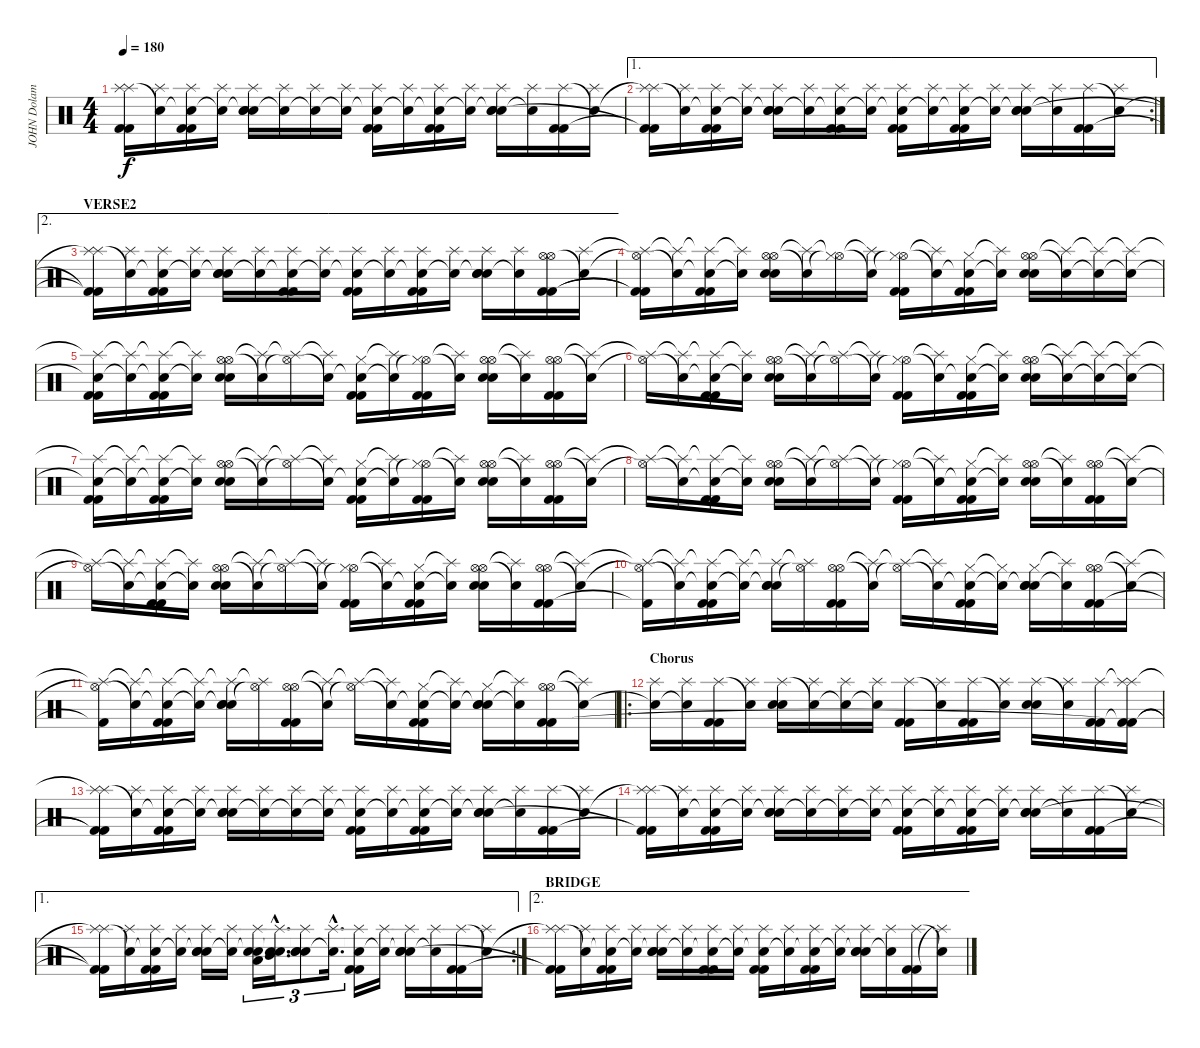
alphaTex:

\track ("JOHN Dolamyan" "JOHN Dolam") {instrument percussion}
\staff {score}
\articulation defaults
\ts (4 4)
\tempo 180
\clef neutral
\ks c
("Splash (hit)"{t} "Splash (hit)" "Kick (hit) 2"{t} "Kick (hit) 2"{t}).16{dy f} ("Snare (hit)"{t} "Splash (hit)").16 ("Snare (hit)"{t} "Splash (hit)" "Kick (hit) 2" "Kick (hit) 2").16 ("Snare (hit)"{t} "Splash (hit)").16 ("Snare (hit)"{t} "Splash (hit)" "Electric Snare (hit)" "Electric Snare (hit)").16 ("Snare (hit)"{t} "Splash (hit)").16 ("Snare (hit)"{t} "Splash (hit)").16 ("Snare (hit)"{t} "Splash (hit)").16 ("Snare (hit)"{t} "Splash (hit)" "Kick (hit) 2" "Kick (hit) 2").16 ("Snare (hit)"{t} "Splash (hit)").16 ("Snare (hit)"{t} "Splash (hit)" "Kick (hit) 2" "Kick (hit) 2").16 ("Snare (hit)"{t} "Splash (hit)").16 ("Snare (hit)"{t} "Splash (hit)" "Electric Snare (hit)" "Electric Snare (hit)").16 ("Snare (hit)"{t} "Splash (hit)").16 ("Splash (hit)" "Kick (hit) 2" "Kick (hit) 2").16 ("Snare (hit)"{t} "Splash (hit)").16 |
\ae 1
\rc 2
("Splash (hit)"{t} "Splash (hit)" "Kick (hit) 2"{t} "Kick (hit) 2"{t}).16 ("Snare (hit)"{t} "Splash (hit)").16 ("Snare (hit)"{t} "Splash (hit)" "Kick (hit) 2" "Kick (hit) 2").16 ("Snare (hit)"{t} "Splash (hit)").16 ("Snare (hit)"{t} "Splash (hit)" "Electric Snare (hit)" "Electric Snare (hit)").16 ("Snare (hit)"{t} "Splash (hit)").16 ("Snare (hit)"{t} "Splash (hit)" "Kick (hit) 2" "Kick (hit) 2").16 ("Snare (hit)"{t} "Splash (hit)").16 ("Snare (hit)"{t} "Splash (hit)" "Kick (hit) 2" "Kick (hit) 2").16 ("Snare (hit)"{t} "Splash (hit)").16 ("Snare (hit)"{t} "Splash (hit)" "Kick (hit) 2" "Kick (hit) 2").16 ("Snare (hit)"{t} "Splash (hit)").16 ("Snare (hit)"{t} "Splash (hit)" "Electric Snare (hit)" "Electric Snare (hit)").16 ("Snare (hit)"{t} "Splash (hit)").16 ("Splash (hit)" "Kick (hit) 2" "Kick (hit) 2").16 ("Snare (hit)"{t} "Splash (hit)").16 |
\ae 2
\section ("" "VERSE2")
("Splash (hit)"{t} "Splash (hit)" "Kick (hit) 2"{t} "Kick (hit) 2"{t}).16 ("Snare (hit)"{t} "Splash (hit)").16 ("Snare (hit)"{t} "Splash (hit)" "Kick (hit) 2" "Kick (hit) 2").16 ("Snare (hit)"{t} "Splash (hit)").16 ("Snare (hit)"{t} "Splash (hit)" "Electric Snare (hit)" "Electric Snare (hit)").16 ("Snare (hit)"{t} "Splash (hit)").16 ("Snare (hit)"{t} "Splash (hit)" "Kick (hit) 2" "Kick (hit) 2").16 ("Snare (hit)"{t} "Splash (hit)").16 ("Snare (hit)"{t} "Splash (hit)" "Kick (hit) 2" "Kick (hit) 2").16 ("Snare (hit)"{t} "Splash (hit)").16 ("Snare (hit)"{t} "Splash (hit)" "Kick (hit) 2" "Kick (hit) 2").16 ("Snare (hit)"{t} "Splash (hit)").16 ("Snare (hit)"{t} "Splash (hit)" "Electric Snare (hit)" "Electric Snare (hit)").16 ("Snare (hit)"{t} "Splash (hit)").16 ("Hi-Hat (open)" "Hi-Hat (open)" "Kick (hit) 2" "Kick (hit) 2").16 ("Snare (hit)"{t} "Splash (hit)").16 |
("Hi-Hat (open)"{t} "Splash (hit)"{t} "Kick (hit) 2"{t} "Kick (hit) 2"{t}).16 ("Snare (hit)"{t} "Splash (hit)"{t}).16 ("Snare (hit)"{t} "Splash (hit)"{t} "Kick (hit) 2" "Kick (hit) 2").16 ("Snare (hit)"{t} "Splash (hit)"{t}).16 ("Hi-Hat (open)" "Hi-Hat (open)" "Electric Snare (hit)" "Electric Snare (hit)").16 ("Snare (hit)"{t} "Splash (hit)"{t}).16 ("Hi-Hat (open)"{t} "Hi-Hat (closed)"{t}).16 ("Snare (hit)"{t} "Splash (hit)"{t}).16 ("Hi-Hat (open)"{t} "Hi-Hat (closed)" "Kick (hit) 2" "Kick (hit) 2").16 ("Snare (hit)"{t} "Splash (hit)"{t}).16 ("Snare (hit)"{t} "Hi-Hat (closed)" "Kick (hit) 2" "Kick (hit) 2").16 ("Snare (hit)"{t} "Splash (hit)"{t}).16 ("Hi-Hat (open)" "Hi-Hat (open)" "Electric Snare (hit)" "Electric Snare (hit)").16 ("Snare (hit)"{t} "Splash (hit)"{t}).16 ("Snare (hit)"{t} "Splash (hit)"{t}).16 ("Snare (hit)"{t} "Splash (hit)"{t}).16 |
("Snare (hit)"{t} "Splash (hit)"{t} "Kick (hit) 2" "Kick (hit) 2").16 ("Snare (hit)"{t} "Splash (hit)"{t}).16 ("Snare (hit)"{t} "Splash (hit)"{t} "Kick (hit) 2" "Kick (hit) 2").16 ("Snare (hit)"{t} "Splash (hit)"{t}).16 ("Hi-Hat (open)" "Hi-Hat (open)" "Electric Snare (hit)" "Electric Snare (hit)").16 ("Snare (hit)"{t} "Splash (hit)"{t}).16 ("Hi-Hat (open)"{t} "Splash (hit)"{t}).16 ("Snare (hit)"{t} "Splash (hit)"{t}).16 ("Snare (hit)"{t} "Hi-Hat (closed)" "Kick (hit) 2" "Kick (hit) 2").16 ("Snare (hit)"{t} "Splash (hit)"{t}).16 ("Hi-Hat (open)"{t} "Hi-Hat (closed)" "Kick (hit) 2" "Kick (hit) 2").16 ("Snare (hit)"{t} "Splash (hit)"{t}).16 ("Hi-Hat (open)" "Hi-Hat (open)" "Electric Snare (hit)" "Electric Snare (hit)").16 ("Snare (hit)"{t} "Splash (hit)"{t}).16 ("Hi-Hat (open)" "Hi-Hat (open)" "Kick (hit) 2" "Kick (hit) 2").16 ("Snare (hit)"{t} "Splash (hit)"{t}).16 |
("Hi-Hat (open)"{t} "Splash (hit)"{t}).16 ("Snare (hit)"{t} "Splash (hit)"{t}).16 ("Snare (hit)"{t} "Splash (hit)"{t} "Kick (hit) 2" "Kick (hit) 2").16 ("Snare (hit)"{t} "Splash (hit)"{t}).16 ("Hi-Hat (open)" "Hi-Hat (open)" "Electric Snare (hit)" "Electric Snare (hit)").16 ("Snare (hit)"{t} "Splash (hit)"{t}).16 ("Hi-Hat (open)"{t} "Splash (hit)"{t}).16 ("Snare (hit)"{t} "Splash (hit)"{t}).16 ("Hi-Hat (open)"{t} "Hi-Hat (closed)" "Kick (hit) 2" "Kick (hit) 2").16 ("Snare (hit)"{t} "Splash (hit)"{t}).16 ("Snare (hit)"{t} "Hi-Hat (closed)" "Kick (hit) 2" "Kick (hit) 2").16 ("Snare (hit)"{t} "Splash (hit)"{t}).16 ("Hi-Hat (open)" "Hi-Hat (open)" "Electric Snare (hit)" "Electric Snare (hit)").16 ("Snare (hit)"{t} "Splash (hit)"{t}).16 ("Snare (hit)"{t} "Splash (hit)"{t}).16 ("Snare (hit)"{t} "Splash (hit)"{t}).16 |
("Snare (hit)"{t} "Splash (hit)"{t} "Kick (hit) 2" "Kick (hit) 2").16 ("Snare (hit)"{t} "Splash (hit)"{t}).16 ("Snare (hit)"{t} "Splash (hit)"{t} "Kick (hit) 2" "Kick (hit) 2").16 ("Snare (hit)"{t} "Splash (hit)"{t}).16 ("Hi-Hat (open)" "Hi-Hat (open)" "Electric Snare (hit)" "Electric Snare (hit)").16 ("Snare (hit)"{t} "Splash (hit)"{t}).16 ("Hi-Hat (open)"{t} "Splash (hit)"{t}).16 ("Snare (hit)"{t} "Splash (hit)"{t}).16 ("Snare (hit)"{t} "Hi-Hat (closed)" "Kick (hit) 2" "Kick (hit) 2").16 ("Snare (hit)"{t} "Splash (hit)"{t}).16 ("Hi-Hat (open)"{t} "Hi-Hat (closed)" "Kick (hit) 2" "Kick (hit) 2").16 ("Snare (hit)"{t} "Splash (hit)"{t}).16 ("Hi-Hat (open)" "Hi-Hat (open)" "Electric Snare (hit)" "Electric Snare (hit)").16 ("Snare (hit)"{t} "Splash (hit)"{t}).16 ("Hi-Hat (open)" "Hi-Hat (open)" "Kick (hit) 2" "Kick (hit) 2").16 ("Snare (hit)"{t} "Splash (hit)"{t}).16 |
("Hi-Hat (open)"{t} "Splash (hit)"{t}).16 ("Snare (hit)"{t} "Splash (hit)"{t}).16 ("Snare (hit)"{t} "Splash (hit)"{t} "Kick (hit) 2" "Kick (hit) 2").16 ("Snare (hit)"{t} "Splash (hit)"{t}).16 ("Hi-Hat (open)" "Hi-Hat (open)" "Electric Snare (hit)" "Electric Snare (hit)").16 ("Snare (hit)"{t} "Splash (hit)"{t}).16 ("Hi-Hat (open)"{t} "Splash (hit)"{t}).16 ("Snare (hit)"{t} "Splash (hit)"{t}).16 ("Hi-Hat (open)"{t} "Hi-Hat (closed)" "Kick (hit) 2" "Kick (hit) 2").16 ("Snare (hit)"{t} "Splash (hit)"{t}).16 ("Snare (hit)"{t} "Hi-Hat (closed)" "Kick (hit) 2" "Kick (hit) 2").16 ("Snare (hit)"{t} "Splash (hit)"{t}).16 ("Hi-Hat (open)" "Hi-Hat (open)" "Electric Snare (hit)" "Electric Snare (hit)").16 ("Snare (hit)"{t} "Splash (hit)"{t}).16 ("Hi-Hat (open)" "Hi-Hat (open)" "Kick (hit) 2" "Kick (hit) 2").16 ("Snare (hit)"{t} "Splash (hit)"{t}).16 |
("Hi-Hat (open)"{t} "Splash (hit)"{t}).16 ("Snare (hit)"{t} "Splash (hit)"{t}).16 ("Snare (hit)"{t} "Splash (hit)"{t} "Kick (hit) 2" "Kick (hit) 2").16 ("Snare (hit)"{t} "Splash (hit)"{t}).16 ("Hi-Hat (open)" "Hi-Hat (open)" "Electric Snare (hit)" "Electric Snare (hit)").16 ("Snare (hit)"{t} "Splash (hit)"{t}).16 ("Hi-Hat (open)"{t} "Splash (hit)"{t}).16 ("Snare (hit)"{t} "Splash (hit)"{t}).16 ("Hi-Hat (open)"{t} "Hi-Hat (closed)" "Kick (hit) 2" "Kick (hit) 2").16 ("Snare (hit)"{t} "Splash (hit)"{t}).16 ("Snare (hit)"{t} "Hi-Hat (closed)" "Kick (hit) 2" "Kick (hit) 2").16 ("Snare (hit)"{t} "Splash (hit)"{t}).16 ("Hi-Hat (open)" "Hi-Hat (open)" "Electric Snare (hit)" "Electric Snare (hit)").16 ("Snare (hit)"{t} "Splash (hit)"{t}).16 ("Hi-Hat (open)" "Hi-Hat (open)" "Kick (hit) 2" "Kick (hit) 2").16 ("Snare (hit)"{t} "Splash (hit)"{t}).16 |
("Hi-Hat (open)"{t} "Splash (hit)"{t} "Kick (hit) 2"{t}).16 ("Snare (hit)"{t} "Splash (hit)"{t}).16 ("Snare (hit)"{t} "Splash (hit)"{t} "Kick (hit) 2" "Kick (hit) 2").16 ("Snare (hit)"{t} "Splash (hit)"{t}).16 ("Snare (hit)"{t} "Splash (hit)"{t} "Electric Snare (hit)" "Electric Snare (hit)").16 ("Hi-Hat (open)"{t} "Splash (hit)"{t}).16 ("Hi-Hat (open)" "Hi-Hat (open)" "Kick (hit) 2" "Kick (hit) 2").16 ("Snare (hit)"{t} "Splash (hit)"{t}).16 ("Hi-Hat (open)"{t} "Splash (hit)"{t}).16 ("Snare (hit)"{t} "Splash (hit)"{t}).16 ("Snare (hit)"{t} "Hi-Hat (closed)" "Kick (hit) 2" "Kick (hit) 2").16 ("Snare (hit)"{t} "Hi-Hat (closed)"{t}).16 ("Snare (hit)"{t} "Hi-Hat (closed)" "Electric Snare (hit)" "Electric Snare (hit)").16 ("Snare (hit)"{t} "Splash (hit)"{t}).16 ("Hi-Hat (open)" "Hi-Hat (open)" "Kick (hit) 2" "Kick (hit) 2").16 ("Snare (hit)"{t} "Splash (hit)"{t}).16 |
("Hi-Hat (open)"{t} "Splash (hit)"{t} "Kick (hit) 2"{t}).16 ("Snare (hit)"{t} "Splash (hit)"{t}).16 ("Snare (hit)"{t} "Splash (hit)"{t} "Kick (hit) 2" "Kick (hit) 2").16 ("Snare (hit)"{t} "Splash (hit)"{t}).16 ("Snare (hit)"{t} "Splash (hit)"{t} "Electric Snare (hit)" "Electric Snare (hit)").16 ("Hi-Hat (open)"{t} "Splash (hit)"{t}).16 ("Hi-Hat (open)" "Hi-Hat (open)" "Kick (hit) 2" "Kick (hit) 2").16 ("Snare (hit)"{t} "Splash (hit)"{t}).16 ("Hi-Hat (open)"{t} "Splash (hit)"{t}).16 ("Snare (hit)"{t} "Splash (hit)"{t}).16 ("Snare (hit)"{t} "Hi-Hat (closed)" "Kick (hit) 2" "Kick (hit) 2").16 ("Snare (hit)"{t} "Splash (hit)"{t}).16 ("Snare (hit)"{t} "Hi-Hat (closed)" "Electric Snare (hit)" "Electric Snare (hit)").16 ("Snare (hit)"{t} "Splash (hit)"{t}).16 ("Hi-Hat (open)" "Hi-Hat (open)" "Kick (hit) 2" "Kick (hit) 2").16 ("Snare (hit)"{t} "Splash (hit)"{t}).16 |
\ro
\section ("" "Chorus")
("Snare (hit)"{t} "Splash (hit)").16 ("Snare (hit)"{t} "Splash (hit)").16 ("Splash (hit)" "Kick (hit) 2" "Kick (hit) 2").16 ("Snare (hit)"{t} "Splash (hit)").16 ("Splash (hit)" "Electric Snare (hit)" "Electric Snare (hit)").16 ("Snare (hit)"{t} "Splash (hit)").16 ("Snare (hit)"{t} "Splash (hit)").16 ("Snare (hit)"{t} "Splash (hit)").16 ("Splash (hit)" "Kick (hit) 2" "Kick (hit) 2").16 ("Snare (hit)"{t} "Splash (hit)").16 ("Splash (hit)" "Kick (hit) 2" "Kick (hit) 2").16 ("Snare (hit)"{t} "Splash (hit)").16 ("Splash (hit)" "Electric Snare (hit)" "Electric Snare (hit)").16 ("Snare (hit)"{t} "Splash (hit)").16 ("Splash (hit)" "Kick (hit) 2" "Kick (hit) 2").16 ("Splash (hit)"{t} "Splash (hit)" "Kick (hit) 2"{t} "Kick (hit) 2"{t}).16 |
("Splash (hit)"{t} "Splash (hit)" "Kick (hit) 2"{t} "Kick (hit) 2"{t}).16 ("Snare (hit)"{t} "Splash (hit)").16 ("Snare (hit)"{t} "Splash (hit)" "Kick (hit) 2" "Kick (hit) 2").16 ("Snare (hit)"{t} "Splash (hit)").16 ("Snare (hit)"{t} "Splash (hit)" "Electric Snare (hit)" "Electric Snare (hit)").16 ("Snare (hit)"{t} "Splash (hit)").16 ("Snare (hit)"{t} "Splash (hit)").16 ("Snare (hit)"{t} "Splash (hit)").16 ("Snare (hit)"{t} "Splash (hit)" "Kick (hit) 2" "Kick (hit) 2").16 ("Snare (hit)"{t} "Splash (hit)").16 ("Snare (hit)"{t} "Splash (hit)" "Kick (hit) 2" "Kick (hit) 2").16 ("Snare (hit)"{t} "Splash (hit)").16 ("Snare (hit)"{t} "Splash (hit)" "Electric Snare (hit)" "Electric Snare (hit)").16 ("Snare (hit)"{t} "Splash (hit)").16 ("Splash (hit)" "Kick (hit) 2" "Kick (hit) 2").16 ("Snare (hit)"{t} "Splash (hit)").16 |
("Splash (hit)"{t} "Splash (hit)" "Kick (hit) 2"{t} "Kick (hit) 2"{t}).16 ("Snare (hit)"{t} "Splash (hit)").16 ("Snare (hit)"{t} "Splash (hit)" "Kick (hit) 2" "Kick (hit) 2").16 ("Snare (hit)"{t} "Splash (hit)").16 ("Snare (hit)"{t} "Splash (hit)" "Electric Snare (hit)" "Electric Snare (hit)").16 ("Snare (hit)"{t} "Splash (hit)").16 ("Snare (hit)"{t} "Splash (hit)").16 ("Snare (hit)"{t} "Splash (hit)").16 ("Snare (hit)"{t} "Splash (hit)" "Kick (hit) 2" "Kick (hit) 2").16 ("Snare (hit)"{t} "Splash (hit)").16 ("Snare (hit)"{t} "Splash (hit)" "Kick (hit) 2" "Kick (hit) 2").16 ("Snare (hit)"{t} "Splash (hit)").16 ("Snare (hit)"{t} "Splash (hit)" "Electric Snare (hit)" "Electric Snare (hit)").16 ("Snare (hit)"{t} "Splash (hit)").16 ("Splash (hit)" "Kick (hit) 2" "Kick (hit) 2").16 ("Snare (hit)"{t} "Splash (hit)").16 |
\ae 1
\rc 2
("Splash (hit)"{t} "Splash (hit)" "Kick (hit) 2"{t} "Kick (hit) 2"{t}).16 ("Snare (hit)"{t} "Splash (hit)").16 ("Snare (hit)"{t} "Splash (hit)" "Kick (hit) 2" "Kick (hit) 2").16 ("Snare (hit)"{t} "Splash (hit)").16 ("Snare (hit)"{t} "Splash (hit)" "Electric Snare (hit)" "Electric Snare (hit)").16 ("Snare (hit)"{t} "Splash (hit)").16 ("Snare (hit)"{t} "Splash (hit)" "Snare (hit) 2" "Low Tom (hit)").16{tu (3 2)} ("Snare (hit)"{hac t} "Splash (hit)"{hac} "Mid Tom (hit)"{hac} "Electric Snare (hit)"{hac}).16{d tu (3 2)} ("Snare (hit)"{t} "Splash (hit)" "Electric Snare (hit)" "Snare (hit) 2").8{tu (3 2)} ("Snare (hit)"{hac t} "Splash (hit)"{hac}).16{d tu (3 2)} ("Snare (hit)"{t} "Splash (hit)" "Kick (hit) 2" "Kick (hit) 2").16 ("Snare (hit)"{t} "Splash (hit)").16 ("Snare (hit)"{t} "Splash (hit)" "Electric Snare (hit)" "Electric Snare (hit)").16 ("Snare (hit)"{t} "Splash (hit)").16 ("Splash (hit)" "Kick (hit) 2" "Kick (hit) 2").16 ("Snare (hit)"{t} "Splash (hit)").16 |
\ae 2
\section ("" "BRIDGE")
("Splash (hit)"{t} "Splash (hit)" "Kick (hit) 2"{t} "Kick (hit) 2"{t}).16 ("Snare (hit)"{t} "Splash (hit)").16 ("Snare (hit)"{t} "Splash (hit)" "Kick (hit) 2" "Kick (hit) 2").16 ("Snare (hit)"{t} "Splash (hit)").16 ("Snare (hit)"{t} "Splash (hit)" "Electric Snare (hit)" "Electric Snare (hit)").16 ("Snare (hit)"{t} "Splash (hit)").16 ("Snare (hit)"{t} "Splash (hit)" "Kick (hit) 2" "Kick (hit) 2").16 ("Snare (hit)"{t} "Splash (hit)").16 ("Snare (hit)"{t} "Splash (hit)" "Kick (hit) 2" "Kick (hit) 2").16 ("Snare (hit)"{t} "Splash (hit)").16 ("Snare (hit)"{t} "Splash (hit)" "Kick (hit) 2" "Kick (hit) 2").16 ("Snare (hit)"{t} "Splash (hit)").16 ("Snare (hit)"{t} "Splash (hit)" "Electric Snare (hit)" "Electric Snare (hit)").16 ("Snare (hit)"{t} "Splash (hit)").16 ("Splash (hit)" "Kick (hit) 2" "Kick (hit) 2").16 ("Snare (hit)"{t} "Splash (hit)"{t}).16
